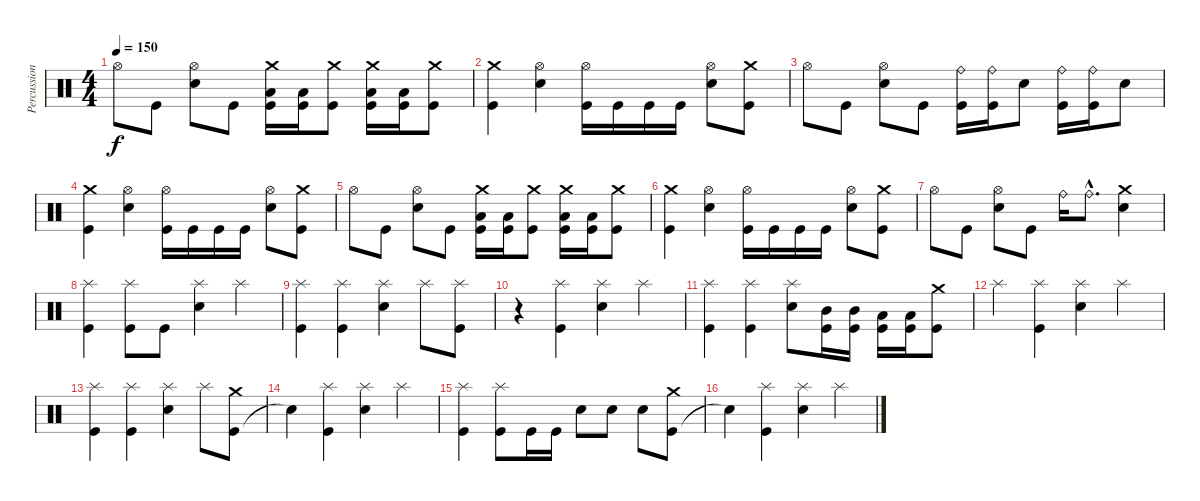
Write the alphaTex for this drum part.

\track ("Percussions" "Percussion") {instrument percussion}
\staff {score}
\articulation defaults
\ts (4 4)
\tempo 150
\clef neutral
\ks c "Hi-Hat (open)".8{dy f} "Kick (hit)".8
("Electric Snare (hit)" "Hi-Hat (open)").8 "Kick (hit)".8 ("Kick (hit)" "Low Floor Tom (hit)" "Crash medium (hit)").16 ("Kick (hit)" "Low Floor Tom (hit)").16 ("Kick (hit)" "Crash medium (hit)").8 ("Kick (hit)" "Low Floor Tom (hit)" "Crash medium (hit)").16 ("Kick (hit)" "Low Floor Tom (hit)").16 ("Kick (hit)" "Crash medium (hit)").8 |
("Kick (hit)" "Crash medium (hit)").4 ("Electric Snare (hit)" "Hi-Hat (open)").4 ("Kick (hit)" "Hi-Hat (open)").16 "Kick (hit)".16 "Kick (hit)".16 "Kick (hit)".16 ("Electric Snare (hit)" "Hi-Hat (open)").8 ("Kick (hit)" "Crash medium (hit)").8 |
"Hi-Hat (open)".8 "Kick (hit)".8 ("Electric Snare (hit)" "Hi-Hat (open)").8 "Kick (hit)".8 ("Kick (hit)" "Ride (bell)").16 ("Kick (hit)" "Ride (bell)").16 "Electric Snare (hit)".8 ("Kick (hit)" "Ride (bell)").16 ("Kick (hit)" "Ride (bell)").16 "Electric Snare (hit)".8 |
("Kick (hit)" "Crash medium (hit)").4 ("Electric Snare (hit)" "Hi-Hat (open)").4 ("Kick (hit)" "Hi-Hat (open)").16 "Kick (hit)".16 "Kick (hit)".16 "Kick (hit)".16 ("Electric Snare (hit)" "Hi-Hat (open)").8 ("Kick (hit)" "Crash medium (hit)").8 |
"Hi-Hat (open)".8 "Kick (hit)".8 ("Electric Snare (hit)" "Hi-Hat (open)").8 "Kick (hit)".8 ("Kick (hit)" "Low Floor Tom (hit)" "Crash medium (hit)").16 ("Kick (hit)" "Low Floor Tom (hit)").16 ("Kick (hit)" "Crash medium (hit)").8 ("Kick (hit)" "Low Floor Tom (hit)" "Crash medium (hit)").16 ("Kick (hit)" "Low Floor Tom (hit)").16 ("Kick (hit)" "Crash medium (hit)").8 |
("Kick (hit)" "Crash medium (hit)").4 ("Electric Snare (hit)" "Hi-Hat (open)").4 ("Kick (hit)" "Hi-Hat (open)").16 "Kick (hit)".16 "Kick (hit)".16 "Kick (hit)".16 ("Electric Snare (hit)" "Hi-Hat (open)").8 ("Kick (hit)" "Crash medium (hit)").8 |
"Hi-Hat (open)".8 "Kick (hit)".8 ("Electric Snare (hit)" "Hi-Hat (open)").8 "Kick (hit)".8 "Ride (bell)".16 "Ride (bell)"{hac}.8{d} ("Electric Snare (hit)" "Crash medium (hit)").4 |
("Kick (hit)" "Splash (hit)").4 ("Kick (hit)" "Splash (hit)").8 "Kick (hit)".8 ("Electric Snare (hit)" "Splash (hit)").4 "Splash (hit)".4 |
("Kick (hit)" "Splash (hit)").4 ("Kick (hit)" "Splash (hit)").4 ("Electric Snare (hit)" "Splash (hit)").4 "Splash (hit)".8 ("Kick (hit)" "Splash (hit)").8 |
r.4 ("Kick (hit)" "Splash (hit)").4 ("Electric Snare (hit)" "Splash (hit)").4 "Splash (hit)".4 |
("Kick (hit)" "Splash (hit)").4 ("Kick (hit)" "Splash (hit)").4 ("Electric Snare (hit)" "Splash (hit)").8 ("Kick (hit)" "Mid Tom (hit)").16 ("Kick (hit)" "Mid Tom (hit)").16 ("Kick (hit)" "Low Tom (hit)").16 ("Kick (hit)" "Low Tom (hit)").16 ("Kick (hit)" "Crash medium (hit)").8 |
"Splash (hit)".4 ("Kick (hit)" "Splash (hit)").4 ("Electric Snare (hit)" "Splash (hit)").4 "Splash (hit)".4 |
("Kick (hit)" "Splash (hit)").4 ("Kick (hit)" "Splash (hit)").4 ("Electric Snare (hit)" "Splash (hit)").4 "Splash (hit)".8 ("Kick (hit)" "Crash medium (hit)").8 |
"Snare (hit)"{t}.4 ("Kick (hit)" "Splash (hit)").4 ("Electric Snare (hit)" "Splash (hit)").4 "Splash (hit)".4 |
("Kick (hit)" "Splash (hit)").4 ("Kick (hit)" "Splash (hit)").8 "Kick (hit)".16 "Kick (hit)".16 "Electric Snare (hit)".8 "Electric Snare (hit)".8 "Electric Snare (hit)".8 ("Kick (hit)" "Crash medium (hit)").8 |
"Snare (hit)"{t}.4 ("Kick (hit)" "Splash (hit)").4 ("Electric Snare (hit)" "Splash (hit)").4 "Splash (hit)".4
